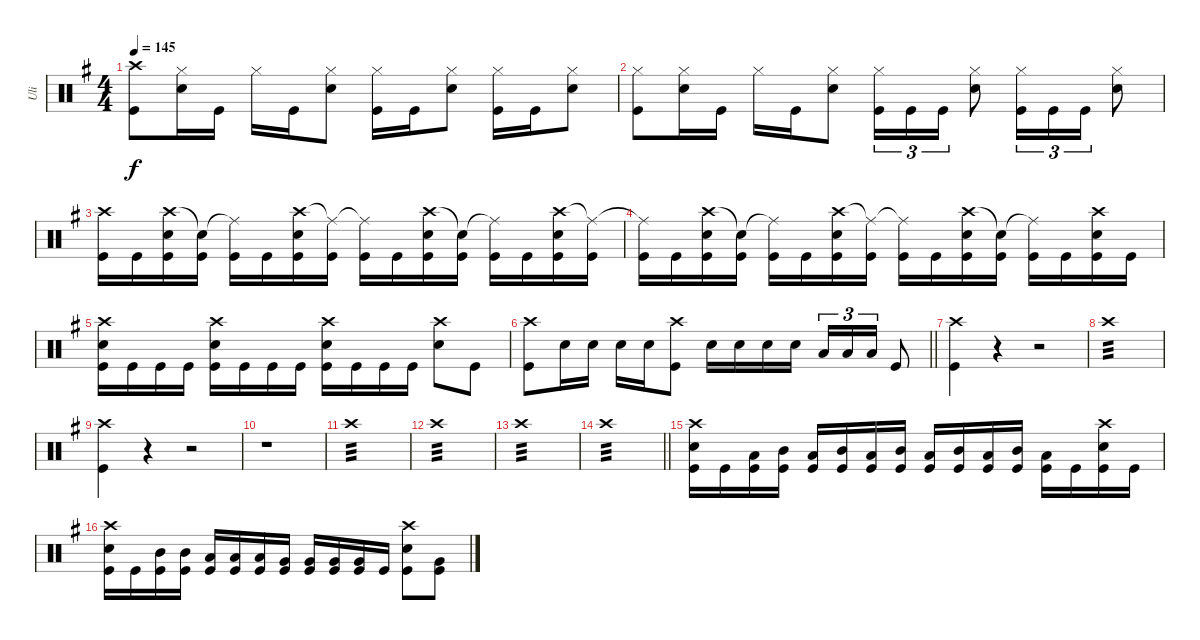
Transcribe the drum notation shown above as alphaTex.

\track ("Uli" "Uli") {instrument percussion}
\staff {score}
\articulation defaults
\ts (4 4)
\tempo 145
\clef neutral
\ks eminor
("Crash high (hit)" "Kick (hit)").8{dy f} ("Hi-Hat (closed)" "Snare (hit) 2").16 "Kick (hit)".16 "Hi-Hat (closed)".16 "Kick (hit)".16 ("Hi-Hat (closed)" "Snare (hit) 2").8 ("Hi-Hat (closed)" "Kick (hit)").16 "Kick (hit)".16 ("Hi-Hat (closed)" "Snare (hit) 2").8 ("Hi-Hat (closed)" "Kick (hit)").16 "Kick (hit)".16 ("Hi-Hat (closed)" "Snare (hit) 2").8 |
("Hi-Hat (closed)" "Kick (hit)").8 ("Hi-Hat (closed)" "Snare (hit) 2").16 "Kick (hit)".16 "Hi-Hat (closed)".16 "Kick (hit)".16 ("Hi-Hat (closed)" "Snare (hit) 2").8 ("Hi-Hat (closed)" "Kick (hit)").16{tu (3 2)} "Kick (hit)".16{tu (3 2)} "Kick (hit)".16{tu (3 2)} ("Hi-Hat (closed)" "Snare (hit) 2").8 ("Hi-Hat (closed)" "Kick (hit)").16{tu (3 2)} "Kick (hit)".16{tu (3 2)} "Kick (hit)".16{tu (3 2)} ("Hi-Hat (closed)" "Snare (hit) 2").8 |
("Crash high (hit)" "Kick (hit)").16 "Kick (hit)".16 ("Crash high (hit)" "Snare (hit) 2" "Kick (hit)").16 ("Snare (hit)"{t} "Kick (hit)").16 ("Ride (middle)"{t} "Kick (hit)").16 "Kick (hit)".16 ("Crash high (hit)" "Snare (hit) 2" "Kick (hit)").16 ("Ride (middle)"{t} "Kick (hit)").16 ("Ride (middle)"{t} "Kick (hit)").16 "Kick (hit)".16 ("Crash high (hit)" "Snare (hit) 2" "Kick (hit)").16 ("Snare (hit)"{t} "Kick (hit)").16 ("Ride (middle)"{t} "Kick (hit)").16 "Kick (hit)".16 ("Crash high (hit)" "Snare (hit) 2" "Kick (hit)").16 ("Ride (middle)"{t} "Kick (hit)").16 |
("Ride (middle)"{t} "Kick (hit)").16 "Kick (hit)".16 ("Crash high (hit)" "Snare (hit) 2" "Kick (hit)").16 ("Snare (hit)"{t} "Kick (hit)").16 ("Ride (middle)"{t} "Kick (hit)").16 "Kick (hit)".16 ("Crash high (hit)" "Snare (hit) 2" "Kick (hit)").16 ("Ride (middle)"{t} "Kick (hit)").16 ("Ride (middle)"{t} "Kick (hit)").16 "Kick (hit)".16 ("Crash high (hit)" "Snare (hit) 2" "Kick (hit)").16 ("Snare (hit)"{t} "Kick (hit)").16 ("Ride (middle)"{t} "Kick (hit)").16 "Kick (hit)".16 ("Crash high (hit)" "Snare (hit) 2" "Kick (hit)").16 "Kick (hit)".16 |
("Crash high (hit)" "Snare (hit) 2" "Kick (hit)").16 "Kick (hit)".16 "Kick (hit)".16 "Kick (hit)".16 ("Crash high (hit)" "Snare (hit) 2" "Kick (hit)").16 "Kick (hit)".16 "Kick (hit)".16 "Kick (hit)".16 ("Crash high (hit)" "Snare (hit) 2" "Kick (hit)").16 "Kick (hit)".16 "Kick (hit)".16 "Kick (hit)".16 ("Crash high (hit)" "Snare (hit) 2").8 "Kick (hit)".8 |
\barLineRight lightlight
("Crash high (hit)" "Kick (hit)").8 "Snare (hit) 2".16 "Snare (hit) 2".16 "Snare (hit) 2".16 "Snare (hit) 2".16 ("Crash high (hit)" "Kick (hit)").8 "Snare (hit) 2".16 "Snare (hit) 2".16 "Snare (hit) 2".16 "Snare (hit) 2".16 "Low Tom (hit)".16{tu (3 2)} "Low Tom (hit)".16{tu (3 2)} "Low Tom (hit)".16{tu (3 2)} "Kick (hit)".8 |
("Crash high (hit)" "Kick (hit)").4 r.4 r.2 |
"Crash high (hit)".1{tp 3} |
("Crash high (hit)" "Kick (hit)").4 r.4 r.2 |
r.1 |
"Crash high (hit)".1{tp 3} |
"Crash high (hit)".1{tp 3} |
"Crash high (hit)".1{tp 3} |
\barLineRight lightlight "Crash high (hit)".1{tp 3}
|
("Crash high (hit)" "Snare (hit) 2" "Kick (hit)").16 "Kick (hit)".16 ("Low Tom (hit)" "Kick (hit)").16 ("Mid Tom (hit)" "Kick (hit)").16 ("Low Tom (hit)" "Kick (hit)").16 ("Mid Tom (hit)" "Kick (hit)").16 ("Low Tom (hit)" "Kick (hit)").16 ("Mid Tom (hit)" "Kick (hit)").16 ("Low Tom (hit)" "Kick (hit)").16 ("Mid Tom (hit)" "Kick (hit)").16 ("Low Tom (hit)" "Kick (hit)").16 ("Mid Tom (hit)" "Kick (hit)").16 ("Low Tom (hit)" "Kick (hit)").16 "Kick (hit)".16 ("Crash high (hit)" "Snare (hit) 2" "Kick (hit)").16 "Kick (hit)".16 |
("Crash high (hit)" "Snare (hit) 2" "Kick (hit)").16 "Kick (hit)".16 ("Mid Tom (hit)" "Kick (hit)").16 ("Mid Tom (hit)" "Kick (hit)").16 ("Low Tom (hit)" "Kick (hit)").16 ("Low Tom (hit)" "Kick (hit)").16 ("Low Tom (hit)" "Kick (hit)").16 ("Very Low Tom (hit)" "Kick (hit)").16 ("Very Low Tom (hit)" "Kick (hit)").16 ("Very Low Tom (hit)" "Kick (hit)").16 ("Very Low Tom (hit)" "Kick (hit)").16 "Kick (hit)".16 ("Crash high (hit)" "Snare (hit) 2" "Kick (hit)").8 ("Very Low Tom (hit)" "Kick (hit)").8
